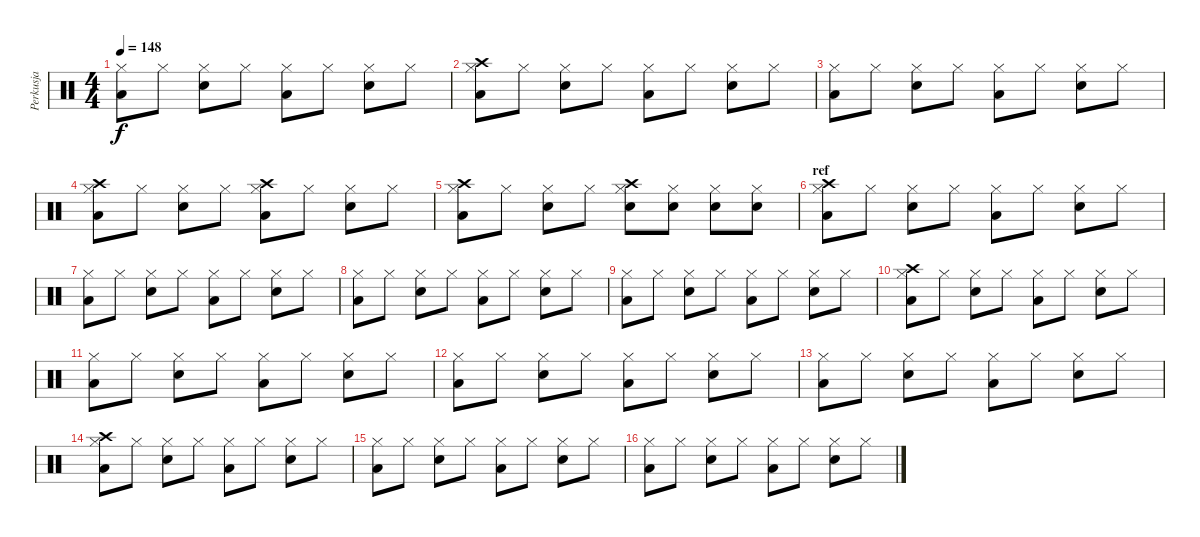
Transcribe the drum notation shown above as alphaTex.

\track ("Perkusja" "Perkusja") {instrument percussion}
\staff {score}
\articulation defaults
\ts (4 4)
\tempo 148
\clef neutral
\ks c
("Low Tom (hit)" "Hi-Hat (closed)").8{dy f} "Hi-Hat (closed)".8 ("Electric Snare (hit)" "Hi-Hat (closed)").8 "Hi-Hat (closed)".8 ("Low Tom (hit)" "Hi-Hat (closed)").8 "Hi-Hat (closed)".8 ("Electric Snare (hit)" "Hi-Hat (closed)").8 "Hi-Hat (closed)".8 |
("Crash high (hit)" "Low Tom (hit)" "Hi-Hat (closed)").8 "Hi-Hat (closed)".8 ("Electric Snare (hit)" "Hi-Hat (closed)").8 "Hi-Hat (closed)".8 ("Low Tom (hit)" "Hi-Hat (closed)").8 "Hi-Hat (closed)".8 ("Electric Snare (hit)" "Hi-Hat (closed)").8 "Hi-Hat (closed)".8 |
("Low Tom (hit)" "Hi-Hat (closed)").8 "Hi-Hat (closed)".8 ("Electric Snare (hit)" "Hi-Hat (closed)").8 "Hi-Hat (closed)".8 ("Low Tom (hit)" "Hi-Hat (closed)").8 "Hi-Hat (closed)".8 ("Electric Snare (hit)" "Hi-Hat (closed)").8 "Hi-Hat (closed)".8 |
("Crash high (hit)" "Low Tom (hit)" "Hi-Hat (closed)").8 "Hi-Hat (closed)".8 ("Electric Snare (hit)" "Hi-Hat (closed)").8 "Hi-Hat (closed)".8 ("Crash high (hit)" "Low Tom (hit)" "Hi-Hat (closed)").8 "Hi-Hat (closed)".8 ("Electric Snare (hit)" "Hi-Hat (closed)").8 "Hi-Hat (closed)".8 |
("Crash high (hit)" "Low Tom (hit)" "Hi-Hat (closed)").8 "Hi-Hat (closed)".8 ("Electric Snare (hit)" "Hi-Hat (closed)").8 "Hi-Hat (closed)".8 ("Crash high (hit)" "Electric Snare (hit)" "Hi-Hat (closed)").8 ("Electric Snare (hit)" "Hi-Hat (closed)").8 ("Electric Snare (hit)" "Hi-Hat (closed)").8 ("Electric Snare (hit)" "Hi-Hat (closed)").8 |
\section ("" "ref")
("Crash high (hit)" "Low Tom (hit)" "Hi-Hat (closed)").8 "Hi-Hat (closed)".8 ("Electric Snare (hit)" "Hi-Hat (closed)").8 "Hi-Hat (closed)".8 ("Low Tom (hit)" "Hi-Hat (closed)").8 "Hi-Hat (closed)".8 ("Electric Snare (hit)" "Hi-Hat (closed)").8 "Hi-Hat (closed)".8 |
("Low Tom (hit)" "Hi-Hat (closed)").8 "Hi-Hat (closed)".8 ("Electric Snare (hit)" "Hi-Hat (closed)").8 "Hi-Hat (closed)".8 ("Low Tom (hit)" "Hi-Hat (closed)").8 "Hi-Hat (closed)".8 ("Electric Snare (hit)" "Hi-Hat (closed)").8 "Hi-Hat (closed)".8 |
("Low Tom (hit)" "Hi-Hat (closed)").8 "Hi-Hat (closed)".8 ("Electric Snare (hit)" "Hi-Hat (closed)").8 "Hi-Hat (closed)".8 ("Low Tom (hit)" "Hi-Hat (closed)").8 "Hi-Hat (closed)".8 ("Electric Snare (hit)" "Hi-Hat (closed)").8 "Hi-Hat (closed)".8 |
("Low Tom (hit)" "Hi-Hat (closed)").8 "Hi-Hat (closed)".8 ("Electric Snare (hit)" "Hi-Hat (closed)").8 "Hi-Hat (closed)".8 ("Low Tom (hit)" "Hi-Hat (closed)").8 "Hi-Hat (closed)".8 ("Electric Snare (hit)" "Hi-Hat (closed)").8 "Hi-Hat (closed)".8 |
("Crash high (hit)" "Low Tom (hit)" "Hi-Hat (closed)").8 "Hi-Hat (closed)".8 ("Electric Snare (hit)" "Hi-Hat (closed)").8 "Hi-Hat (closed)".8 ("Low Tom (hit)" "Hi-Hat (closed)").8 "Hi-Hat (closed)".8 ("Electric Snare (hit)" "Hi-Hat (closed)").8 "Hi-Hat (closed)".8 |
("Low Tom (hit)" "Hi-Hat (closed)").8 "Hi-Hat (closed)".8 ("Electric Snare (hit)" "Hi-Hat (closed)").8 "Hi-Hat (closed)".8 ("Low Tom (hit)" "Hi-Hat (closed)").8 "Hi-Hat (closed)".8 ("Electric Snare (hit)" "Hi-Hat (closed)").8 "Hi-Hat (closed)".8 |
("Low Tom (hit)" "Hi-Hat (closed)").8 "Hi-Hat (closed)".8 ("Electric Snare (hit)" "Hi-Hat (closed)").8 "Hi-Hat (closed)".8 ("Low Tom (hit)" "Hi-Hat (closed)").8 "Hi-Hat (closed)".8 ("Electric Snare (hit)" "Hi-Hat (closed)").8 "Hi-Hat (closed)".8 |
("Low Tom (hit)" "Hi-Hat (closed)").8 "Hi-Hat (closed)".8 ("Electric Snare (hit)" "Hi-Hat (closed)").8 "Hi-Hat (closed)".8 ("Low Tom (hit)" "Hi-Hat (closed)").8 "Hi-Hat (closed)".8 ("Electric Snare (hit)" "Hi-Hat (closed)").8 "Hi-Hat (closed)".8 |
("Crash high (hit)" "Low Tom (hit)" "Hi-Hat (closed)").8 "Hi-Hat (closed)".8 ("Electric Snare (hit)" "Hi-Hat (closed)").8 "Hi-Hat (closed)".8 ("Low Tom (hit)" "Hi-Hat (closed)").8 "Hi-Hat (closed)".8 ("Electric Snare (hit)" "Hi-Hat (closed)").8 "Hi-Hat (closed)".8 |
("Low Tom (hit)" "Hi-Hat (closed)").8 "Hi-Hat (closed)".8 ("Electric Snare (hit)" "Hi-Hat (closed)").8 "Hi-Hat (closed)".8 ("Low Tom (hit)" "Hi-Hat (closed)").8 "Hi-Hat (closed)".8 ("Electric Snare (hit)" "Hi-Hat (closed)").8 "Hi-Hat (closed)".8 |
("Low Tom (hit)" "Hi-Hat (closed)").8 "Hi-Hat (closed)".8 ("Electric Snare (hit)" "Hi-Hat (closed)").8 "Hi-Hat (closed)".8 ("Low Tom (hit)" "Hi-Hat (closed)").8 "Hi-Hat (closed)".8 ("Electric Snare (hit)" "Hi-Hat (closed)").8 "Hi-Hat (closed)".8
